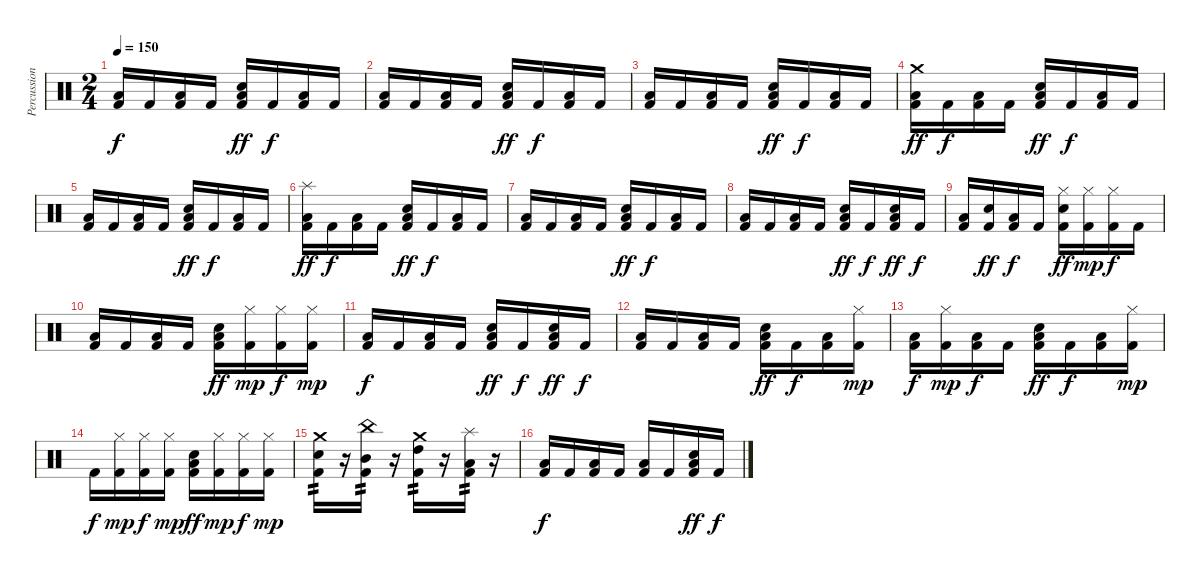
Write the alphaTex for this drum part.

\track ("Percussion" "Percussion") {instrument percussion}
\staff {score}
\articulation defaults
\ts (2 4)
\tempo 150
\clef neutral
\ks c
("Kick (hit) 2" "Low Tom (hit)").16{dy f} "Kick (hit) 2".16 ("Kick (hit) 2" "Low Tom (hit)").16 "Kick (hit) 2".16 ("Kick (hit) 2" "Snare (hit) 2" "Low Tom (hit)").16{dy ff} "Kick (hit) 2".16{dy f} ("Kick (hit) 2" "Low Tom (hit)").16 "Kick (hit) 2".16 |
("Kick (hit) 2" "Low Tom (hit)").16 "Kick (hit) 2".16 ("Kick (hit) 2" "Low Tom (hit)").16 "Kick (hit) 2".16 ("Kick (hit) 2" "Snare (hit) 2" "Low Tom (hit)").16{dy ff} "Kick (hit) 2".16{dy f} ("Kick (hit) 2" "Low Tom (hit)").16 "Kick (hit) 2".16 |
("Kick (hit) 2" "Low Tom (hit)").16 "Kick (hit) 2".16 ("Kick (hit) 2" "Low Tom (hit)").16 "Kick (hit) 2".16 ("Kick (hit) 2" "Snare (hit) 2" "Low Tom (hit)").16{dy ff} "Kick (hit) 2".16{dy f} ("Kick (hit) 2" "Low Tom (hit)").16 "Kick (hit) 2".16 |
("Kick (hit) 2" "Crash medium (hit)" "Low Tom (hit)").16{dy ff} "Kick (hit) 2".16{dy f} ("Kick (hit) 2" "Low Tom (hit)").16 "Kick (hit) 2".16 ("Kick (hit) 2" "Snare (hit) 2" "Low Tom (hit)").16{dy ff} "Kick (hit) 2".16{dy f} ("Kick (hit) 2" "Low Tom (hit)").16 "Kick (hit) 2".16 |
("Kick (hit) 2" "Low Tom (hit)").16 "Kick (hit) 2".16 ("Kick (hit) 2" "Low Tom (hit)").16 "Kick (hit) 2".16 ("Kick (hit) 2" "Snare (hit) 2" "Low Tom (hit)").16{dy ff} "Kick (hit) 2".16{dy f} ("Kick (hit) 2" "Low Tom (hit)").16 "Kick (hit) 2".16 |
("Kick (hit) 2" "Splash (hit)" "Low Tom (hit)").16{dy ff} "Kick (hit) 2".16{dy f} ("Kick (hit) 2" "Low Tom (hit)").16 "Kick (hit) 2".16 ("Kick (hit) 2" "Snare (hit) 2" "Low Tom (hit)").16{dy ff} "Kick (hit) 2".16{dy f} ("Kick (hit) 2" "Low Tom (hit)").16 "Kick (hit) 2".16 |
("Kick (hit) 2" "Low Tom (hit)").16 "Kick (hit) 2".16 ("Kick (hit) 2" "Low Tom (hit)").16 "Kick (hit) 2".16 ("Kick (hit) 2" "Snare (hit) 2" "Low Tom (hit)").16{dy ff} "Kick (hit) 2".16{dy f} ("Kick (hit) 2" "Low Tom (hit)").16 "Kick (hit) 2".16 |
("Kick (hit) 2" "Low Tom (hit)").16 "Kick (hit) 2".16 ("Kick (hit) 2" "Low Tom (hit)").16 "Kick (hit) 2".16 ("Kick (hit) 2" "Snare (hit) 2" "Low Tom (hit)").16{dy ff} "Kick (hit) 2".16{dy f} ("Kick (hit) 2" "Snare (hit) 2" "Low Tom (hit)").16{dy ff} "Kick (hit) 2".16{dy f} |
("Kick (hit) 2" "Low Tom (hit)").16 ("Kick (hit) 2" "Snare (hit) 2").16{dy ff} ("Kick (hit) 2" "Low Tom (hit)").16{dy f} "Kick (hit) 2".16 ("Kick (hit) 2" "Snare (hit) 2" "Hi-Hat (closed)").16{dy ff} ("Kick (hit) 2" "Hi-Hat (closed)").16{dy mp} ("Kick (hit) 2" "Hi-Hat (closed)").16{dy f} "Kick (hit) 2".16 |
("Kick (hit) 2" "Low Tom (hit)").16 "Kick (hit) 2".16 ("Kick (hit) 2" "Low Tom (hit)").16 "Kick (hit) 2".16 ("Kick (hit) 2" "Snare (hit) 2" "Low Tom (hit)").16{dy ff} ("Kick (hit) 2" "Hi-Hat (closed)").16{dy mp} ("Kick (hit) 2" "Hi-Hat (closed)").16{dy f} ("Kick (hit) 2" "Hi-Hat (closed)").16{dy mp} |
("Kick (hit) 2" "Low Tom (hit)").16{dy f} "Kick (hit) 2".16 ("Kick (hit) 2" "Low Tom (hit)").16 "Kick (hit) 2".16 ("Kick (hit) 2" "Snare (hit) 2" "Low Tom (hit)").16{dy ff} "Kick (hit) 2".16{dy f} ("Kick (hit) 2" "Snare (hit) 2" "Low Tom (hit)").16{dy ff} "Kick (hit) 2".16{dy f} |
("Kick (hit) 2" "Low Tom (hit)").16 "Kick (hit) 2".16 ("Kick (hit) 2" "Low Tom (hit)").16 "Kick (hit) 2".16 ("Kick (hit) 2" "Snare (hit) 2" "Low Tom (hit)").16{dy ff} "Kick (hit) 2".16{dy f} ("Kick (hit) 2" "Low Tom (hit)").16 ("Kick (hit) 2" "Hi-Hat (closed)").16{dy mp} |
("Kick (hit) 2" "Low Tom (hit)").16{dy f} ("Kick (hit) 2" "Hi-Hat (closed)").16{dy mp} ("Kick (hit) 2" "Low Tom (hit)").16{dy f} "Kick (hit) 2".16 ("Kick (hit) 2" "Snare (hit) 2" "Low Tom (hit)").16{dy ff} "Kick (hit) 2".16{dy f} ("Kick (hit) 2" "Low Tom (hit)").16 ("Kick (hit) 2" "Hi-Hat (closed)").16{dy mp} |
"Kick (hit) 2".16{dy f} ("Kick (hit) 2" "Hi-Hat (closed)").16{dy mp} ("Kick (hit) 2" "Hi-Hat (closed)").16{dy f} ("Kick (hit) 2" "Hi-Hat (closed)").16{dy mp} ("Kick (hit) 2" "Snare (hit) 2" "Low Tom (hit)").16{dy ff} ("Kick (hit) 2" "Hi-Hat (closed)").16{dy mp} ("Kick (hit) 2" "Hi-Hat (closed)").16{dy f} ("Kick (hit) 2" "Hi-Hat (closed)").16{dy mp} |
("Kick (hit) 2" "Snare (hit) 2" "Crash medium (hit)").16{tp 2} r.16 ("Kick (hit) 2" "Mid Tom (hit)" "China (hit)").16{tp 2} r.16 ("Kick (hit) 2" "High Tom (hit)" "Crash medium (hit)").16{tp 2} r.16 ("Kick (hit) 2" "Low Tom (hit)" "Splash (hit)").16{tp 2} r.16 |
("Kick (hit) 2" "Low Tom (hit)").16{dy f} "Kick (hit) 2".16 ("Kick (hit) 2" "Low Tom (hit)").16 "Kick (hit) 2".16 ("Kick (hit) 2" "Low Tom (hit)").16 "Kick (hit) 2".16 ("Kick (hit) 2" "Snare (hit) 2" "Low Tom (hit)").16{dy ff} "Kick (hit) 2".16{dy f}
